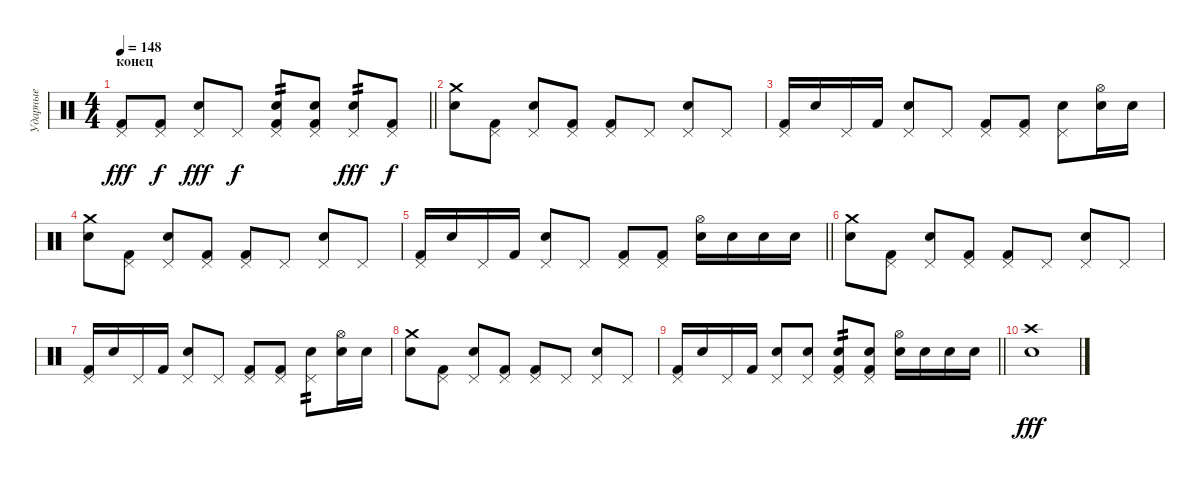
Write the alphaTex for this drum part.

\track ("Ударные" "Ударные") {instrument percussion}
\staff
\articulation defaults
\ts (4 4)
\section ("" "конец")
\tempo 148
\clef neutral
\barLineRight lightlight
\ks c
("Pedal Hi-Hat (hit)" "Kick (hit) 2").8{dy fff} ("Pedal Hi-Hat (hit)" "Kick (hit) 2").8{dy f} ("Pedal Hi-Hat (hit)" "Electric Snare (hit)").8{dy fff} "Pedal Hi-Hat (hit)".8{dy f} ("Pedal Hi-Hat (hit)" "Electric Snare (hit)" "Kick (hit) 2").8{tp 2} ("Pedal Hi-Hat (hit)" "Electric Snare (hit)" "Kick (hit) 2").8 ("Pedal Hi-Hat (hit)" "Electric Snare (hit)").8{tp 2 dy fff} ("Pedal Hi-Hat (hit)" "Kick (hit) 2").8{dy f} |
("Crash medium (hit)" "Electric Snare (hit)").8 ("Pedal Hi-Hat (hit)" "Kick (hit) 2").8 ("Pedal Hi-Hat (hit)" "Electric Snare (hit)").8 ("Pedal Hi-Hat (hit)" "Kick (hit) 2").8 ("Pedal Hi-Hat (hit)" "Kick (hit) 2").8 "Pedal Hi-Hat (hit)".8 ("Pedal Hi-Hat (hit)" "Electric Snare (hit)").8 "Pedal Hi-Hat (hit)".8 |
("Pedal Hi-Hat (hit)" "Kick (hit) 2").16 "Electric Snare (hit)".16 "Pedal Hi-Hat (hit)".16 "Kick (hit) 2".16 ("Pedal Hi-Hat (hit)" "Electric Snare (hit)").8 "Pedal Hi-Hat (hit)".8 ("Pedal Hi-Hat (hit)" "Kick (hit) 2").8 ("Pedal Hi-Hat (hit)" "Kick (hit) 2").8 ("Pedal Hi-Hat (hit)" "Electric Snare (hit)").8 ("Hi-Hat (open)" "Electric Snare (hit)").16 "Electric Snare (hit)".16 |
("Crash medium (hit)" "Electric Snare (hit)").8 ("Pedal Hi-Hat (hit)" "Kick (hit) 2").8 ("Pedal Hi-Hat (hit)" "Electric Snare (hit)").8 ("Pedal Hi-Hat (hit)" "Kick (hit) 2").8 ("Pedal Hi-Hat (hit)" "Kick (hit) 2").8 "Pedal Hi-Hat (hit)".8 ("Pedal Hi-Hat (hit)" "Electric Snare (hit)").8 "Pedal Hi-Hat (hit)".8 |
\barLineRight lightlight
("Pedal Hi-Hat (hit)" "Kick (hit) 2").16 "Electric Snare (hit)".16 "Pedal Hi-Hat (hit)".16 "Kick (hit) 2".16 ("Pedal Hi-Hat (hit)" "Electric Snare (hit)").8 "Pedal Hi-Hat (hit)".8 ("Pedal Hi-Hat (hit)" "Kick (hit) 2").8 ("Pedal Hi-Hat (hit)" "Kick (hit) 2").8 ("Hi-Hat (open)" "Electric Snare (hit)").16 "Electric Snare (hit)".16 "Electric Snare (hit)".16 "Electric Snare (hit)".16 |
("Crash medium (hit)" "Electric Snare (hit)").8 ("Pedal Hi-Hat (hit)" "Kick (hit) 2").8 ("Pedal Hi-Hat (hit)" "Electric Snare (hit)").8 ("Pedal Hi-Hat (hit)" "Kick (hit) 2").8 ("Pedal Hi-Hat (hit)" "Kick (hit) 2").8 "Pedal Hi-Hat (hit)".8 ("Pedal Hi-Hat (hit)" "Electric Snare (hit)").8 "Pedal Hi-Hat (hit)".8 |
("Pedal Hi-Hat (hit)" "Kick (hit) 2").16 "Electric Snare (hit)".16 "Pedal Hi-Hat (hit)".16 "Kick (hit) 2".16 ("Pedal Hi-Hat (hit)" "Electric Snare (hit)").8 "Pedal Hi-Hat (hit)".8 ("Pedal Hi-Hat (hit)" "Kick (hit) 2").8 ("Pedal Hi-Hat (hit)" "Kick (hit) 2").8 ("Pedal Hi-Hat (hit)" "Electric Snare (hit)").8{tp 2} ("Hi-Hat (open)" "Electric Snare (hit)").16 "Electric Snare (hit)".16 |
("Crash medium (hit)" "Electric Snare (hit)").8 ("Pedal Hi-Hat (hit)" "Kick (hit) 2").8 ("Pedal Hi-Hat (hit)" "Electric Snare (hit)").8 ("Pedal Hi-Hat (hit)" "Kick (hit) 2").8 ("Pedal Hi-Hat (hit)" "Kick (hit) 2").8 "Pedal Hi-Hat (hit)".8 ("Pedal Hi-Hat (hit)" "Electric Snare (hit)").8 "Pedal Hi-Hat (hit)".8 |
\barLineRight lightlight
("Pedal Hi-Hat (hit)" "Kick (hit) 2").16 "Electric Snare (hit)".16 "Pedal Hi-Hat (hit)".16 "Kick (hit) 2".16 ("Pedal Hi-Hat (hit)" "Electric Snare (hit)").8 ("Pedal Hi-Hat (hit)" "Electric Snare (hit)").8 ("Pedal Hi-Hat (hit)" "Electric Snare (hit)" "Kick (hit) 2").8{tp 2} ("Pedal Hi-Hat (hit)" "Electric Snare (hit)" "Kick (hit) 2").8 ("Hi-Hat (open)" "Electric Snare (hit)").16 "Electric Snare (hit)".16 "Electric Snare (hit)".16 "Electric Snare (hit)".16 |
("Crash high (hit)" "Electric Snare (hit)").1{dy fff}
